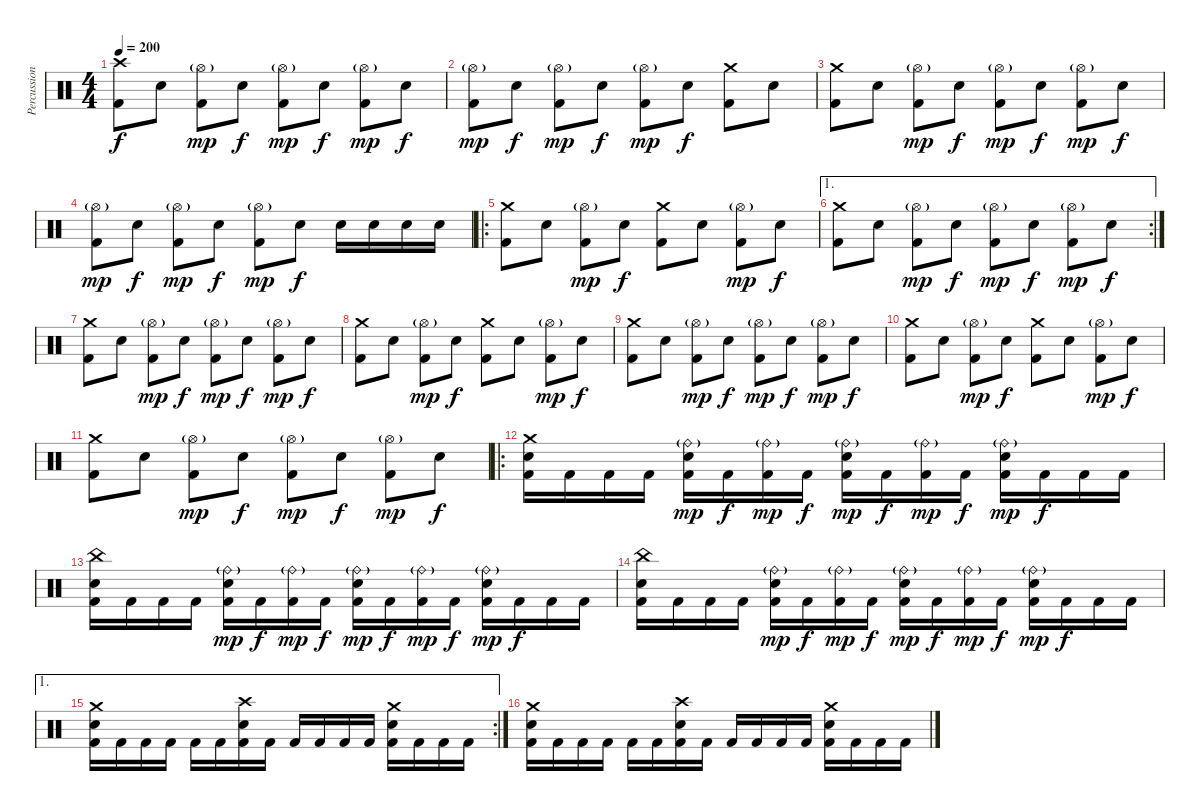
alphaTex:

\track ("Percussion" "Percussion") {instrument percussion}
\staff {score}
\articulation defaults
\ts (4 4)
\tempo 200
\clef neutral
\ks c
("Crash high (hit)" "Kick (hit) 2").8{dy f} "Electric Snare (hit)".8 ("Hi-Hat (open)"{g} "Kick (hit) 2").8{dy mp} "Electric Snare (hit)".8{dy f} ("Hi-Hat (open)"{g} "Kick (hit) 2").8{dy mp} "Electric Snare (hit)".8{dy f} ("Hi-Hat (open)"{g} "Kick (hit) 2").8{dy mp} "Electric Snare (hit)".8{dy f} |
("Hi-Hat (open)"{g} "Kick (hit) 2").8{dy mp} "Electric Snare (hit)".8{dy f} ("Hi-Hat (open)"{g} "Kick (hit) 2").8{dy mp} "Electric Snare (hit)".8{dy f} ("Hi-Hat (open)"{g} "Kick (hit) 2").8{dy mp} "Electric Snare (hit)".8{dy f} ("Crash medium (hit)" "Kick (hit) 2").8 "Electric Snare (hit)".8 |
("Crash medium (hit)" "Kick (hit) 2").8 "Electric Snare (hit)".8 ("Hi-Hat (open)"{g} "Kick (hit) 2").8{dy mp} "Electric Snare (hit)".8{dy f} ("Hi-Hat (open)"{g} "Kick (hit) 2").8{dy mp} "Electric Snare (hit)".8{dy f} ("Hi-Hat (open)"{g} "Kick (hit) 2").8{dy mp} "Electric Snare (hit)".8{dy f} |
("Hi-Hat (open)"{g} "Kick (hit) 2").8{dy mp} "Electric Snare (hit)".8{dy f} ("Hi-Hat (open)"{g} "Kick (hit) 2").8{dy mp} "Electric Snare (hit)".8{dy f} ("Hi-Hat (open)"{g} "Kick (hit) 2").8{dy mp} "Electric Snare (hit)".8{dy f} "Electric Snare (hit)".16 "Electric Snare (hit)".16 "Electric Snare (hit)".16 "Electric Snare (hit)".16 |
\ro
("Crash medium (hit)" "Kick (hit) 2").8 "Electric Snare (hit)".8 ("Hi-Hat (open)"{g} "Kick (hit) 2").8{dy mp} "Electric Snare (hit)".8{dy f} ("Crash medium (hit)" "Kick (hit) 2").8 "Electric Snare (hit)".8 ("Hi-Hat (open)"{g} "Kick (hit) 2").8{dy mp} "Electric Snare (hit)".8{dy f} |
\ae 1
\rc 2
("Crash medium (hit)" "Kick (hit) 2").8 "Electric Snare (hit)".8 ("Hi-Hat (open)"{g} "Kick (hit) 2").8{dy mp} "Electric Snare (hit)".8{dy f} ("Hi-Hat (open)"{g} "Kick (hit) 2").8{dy mp} "Electric Snare (hit)".8{dy f} ("Hi-Hat (open)"{g} "Kick (hit) 2").8{dy mp} "Electric Snare (hit)".8{dy f} |
("Crash medium (hit)" "Kick (hit) 2").8 "Electric Snare (hit)".8 ("Hi-Hat (open)"{g} "Kick (hit) 2").8{dy mp} "Electric Snare (hit)".8{dy f} ("Hi-Hat (open)"{g} "Kick (hit) 2").8{dy mp} "Electric Snare (hit)".8{dy f} ("Hi-Hat (open)"{g} "Kick (hit) 2").8{dy mp} "Electric Snare (hit)".8{dy f} |
("Crash medium (hit)" "Kick (hit) 2").8 "Electric Snare (hit)".8 ("Hi-Hat (open)"{g} "Kick (hit) 2").8{dy mp} "Electric Snare (hit)".8{dy f} ("Crash medium (hit)" "Kick (hit) 2").8 "Electric Snare (hit)".8 ("Hi-Hat (open)"{g} "Kick (hit) 2").8{dy mp} "Electric Snare (hit)".8{dy f} |
("Crash medium (hit)" "Kick (hit) 2").8 "Electric Snare (hit)".8 ("Hi-Hat (open)"{g} "Kick (hit) 2").8{dy mp} "Electric Snare (hit)".8{dy f} ("Hi-Hat (open)"{g} "Kick (hit) 2").8{dy mp} "Electric Snare (hit)".8{dy f} ("Hi-Hat (open)"{g} "Kick (hit) 2").8{dy mp} "Electric Snare (hit)".8{dy f} |
("Crash medium (hit)" "Kick (hit) 2").8 "Electric Snare (hit)".8 ("Hi-Hat (open)"{g} "Kick (hit) 2").8{dy mp} "Electric Snare (hit)".8{dy f} ("Crash medium (hit)" "Kick (hit) 2").8 "Electric Snare (hit)".8 ("Hi-Hat (open)"{g} "Kick (hit) 2").8{dy mp} "Electric Snare (hit)".8{dy f} |
("Crash medium (hit)" "Kick (hit) 2").8 "Electric Snare (hit)".8 ("Hi-Hat (open)"{g} "Kick (hit) 2").8{dy mp} "Electric Snare (hit)".8{dy f} ("Hi-Hat (open)"{g} "Kick (hit) 2").8{dy mp} "Electric Snare (hit)".8{dy f} ("Hi-Hat (open)"{g} "Kick (hit) 2").8{dy mp} "Electric Snare (hit)".8{dy f} |
\ro
("Crash medium (hit)" "Electric Snare (hit)" "Kick (hit) 2").16 "Kick (hit) 2".16 "Kick (hit) 2".16 "Kick (hit) 2".16 ("Ride (bell)"{g} "Electric Snare (hit)" "Kick (hit) 2").16{dy mp} "Kick (hit) 2".16{dy f} ("Ride (bell)"{g} "Kick (hit) 2").16{dy mp} "Kick (hit) 2".16{dy f} ("Ride (bell)"{g} "Electric Snare (hit)" "Kick (hit) 2").16{dy mp} "Kick (hit) 2".16{dy f} ("Ride (bell)"{g} "Kick (hit) 2").16{dy mp} "Kick (hit) 2".16{dy f} ("Ride (bell)"{g} "Electric Snare (hit)" "Kick (hit) 2").16{dy mp} "Kick (hit) 2".16{dy f} "Kick (hit) 2".16 "Kick (hit) 2".16 |
("China (hit)" "Electric Snare (hit)" "Kick (hit) 2").16 "Kick (hit) 2".16 "Kick (hit) 2".16 "Kick (hit) 2".16 ("Ride (bell)"{g} "Electric Snare (hit)" "Kick (hit) 2").16{dy mp} "Kick (hit) 2".16{dy f} ("Ride (bell)"{g} "Kick (hit) 2").16{dy mp} "Kick (hit) 2".16{dy f} ("Ride (bell)"{g} "Electric Snare (hit)" "Kick (hit) 2").16{dy mp} "Kick (hit) 2".16{dy f} ("Ride (bell)"{g} "Kick (hit) 2").16{dy mp} "Kick (hit) 2".16{dy f} ("Ride (bell)"{g} "Electric Snare (hit)" "Kick (hit) 2").16{dy mp} "Kick (hit) 2".16{dy f} "Kick (hit) 2".16 "Kick (hit) 2".16 |
("China (hit)" "Electric Snare (hit)" "Kick (hit) 2").16 "Kick (hit) 2".16 "Kick (hit) 2".16 "Kick (hit) 2".16 ("Ride (bell)"{g} "Electric Snare (hit)" "Kick (hit) 2").16{dy mp} "Kick (hit) 2".16{dy f} ("Ride (bell)"{g} "Kick (hit) 2").16{dy mp} "Kick (hit) 2".16{dy f} ("Ride (bell)"{g} "Electric Snare (hit)" "Kick (hit) 2").16{dy mp} "Kick (hit) 2".16{dy f} ("Ride (bell)"{g} "Kick (hit) 2").16{dy mp} "Kick (hit) 2".16{dy f} ("Ride (bell)"{g} "Electric Snare (hit)" "Kick (hit) 2").16{dy mp} "Kick (hit) 2".16{dy f} "Kick (hit) 2".16 "Kick (hit) 2".16 |
\ae 1
\rc 2
("Crash medium (hit)" "Electric Snare (hit)" "Kick (hit) 2").16 "Kick (hit) 2".16 "Kick (hit) 2".16 "Kick (hit) 2".16 "Kick (hit) 2".16 "Kick (hit) 2".16 ("Crash high (hit)" "Electric Snare (hit)" "Kick (hit) 2").16 "Kick (hit) 2".16 "Kick (hit) 2".16 "Kick (hit) 2".16 "Kick (hit) 2".16 "Kick (hit) 2".16 ("Crash medium (hit)" "Electric Snare (hit)" "Kick (hit) 2").16 "Kick (hit) 2".16 "Kick (hit) 2".16 "Kick (hit) 2".16 |
("Crash medium (hit)" "Electric Snare (hit)" "Kick (hit) 2").16 "Kick (hit) 2".16 "Kick (hit) 2".16 "Kick (hit) 2".16 "Kick (hit) 2".16 "Kick (hit) 2".16 ("Crash high (hit)" "Electric Snare (hit)" "Kick (hit) 2").16 "Kick (hit) 2".16 "Kick (hit) 2".16 "Kick (hit) 2".16 "Kick (hit) 2".16 "Kick (hit) 2".16 ("Crash medium (hit)" "Electric Snare (hit)" "Kick (hit) 2").16 "Kick (hit) 2".16 "Kick (hit) 2".16 "Kick (hit) 2".16
